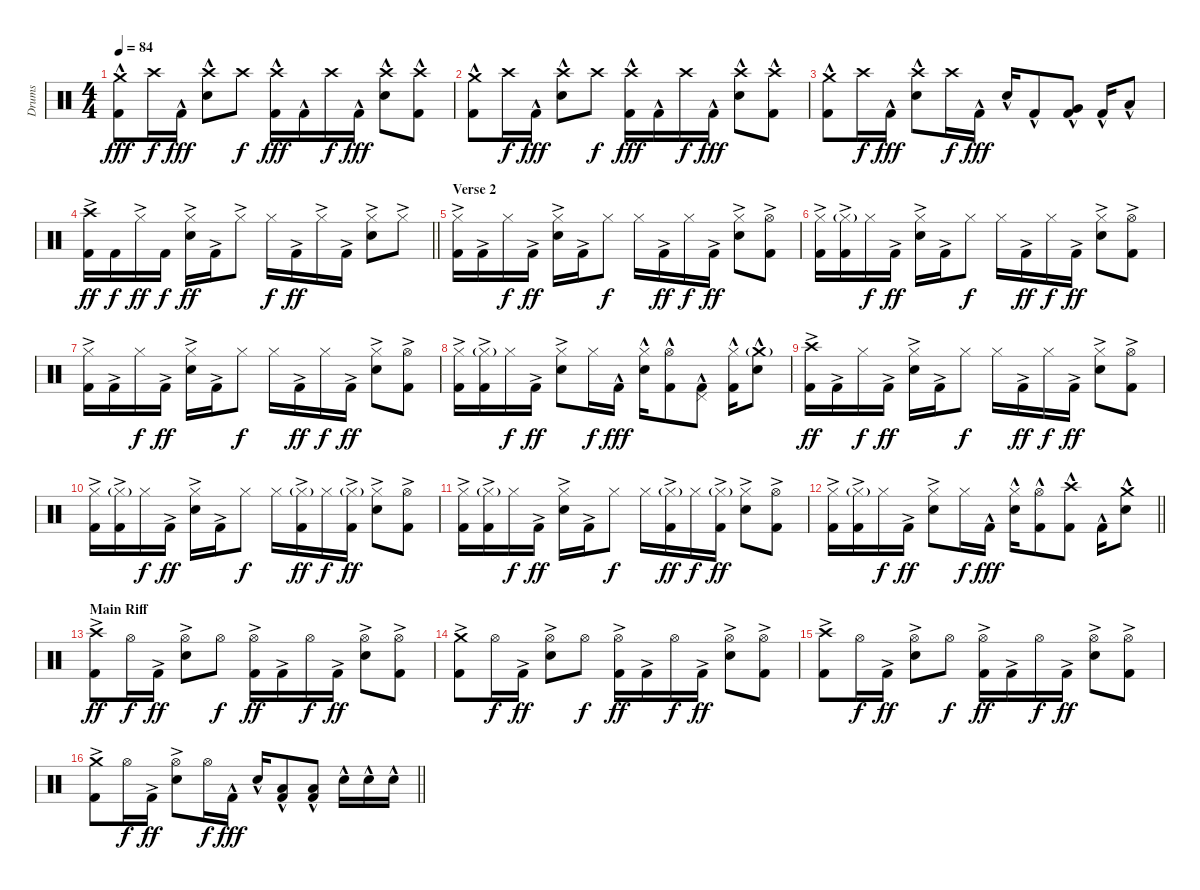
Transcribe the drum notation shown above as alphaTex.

\track ("Drums" "Drums") {instrument percussion}
\staff {score}
\articulation defaults
\ts (4 4)
\tempo 84
\clef neutral
\ks c
("Crash medium (hit)" "Kick (hit) 2"{hac}).8{dy fff} "Crash high (hit)".16{dy f} "Kick (hit) 2"{hac}.16{dy fff} ("Crash high (hit)" "Electric Snare (hit)"{hac}).8 "Crash high (hit)".8{dy f} ("Crash high (hit)" "Kick (hit) 2"{hac}).16{dy fff} "Kick (hit) 2"{hac}.16 "Crash high (hit)".16{dy f} "Kick (hit) 2"{hac}.16{dy fff} ("Crash high (hit)" "Electric Snare (hit)"{hac}).8 ("Crash high (hit)" "Kick (hit) 2"{hac}).8 |
("Crash medium (hit)" "Kick (hit) 2"{hac}).8 "Crash high (hit)".16{dy f} "Kick (hit) 2"{hac}.16{dy fff} ("Crash high (hit)" "Electric Snare (hit)"{hac}).8 "Crash high (hit)".8{dy f} ("Crash high (hit)" "Kick (hit) 2"{hac}).16{dy fff} "Kick (hit) 2"{hac}.16 "Crash high (hit)".16{dy f} "Kick (hit) 2"{hac}.16{dy fff} ("Crash high (hit)" "Electric Snare (hit)"{hac}).8 ("Crash high (hit)" "Kick (hit) 2"{hac}).8 |
("Crash medium (hit)" "Kick (hit) 2"{hac}).8 "Crash high (hit)".16{dy f} "Kick (hit) 2"{hac}.16{dy fff} ("Crash high (hit)" "Electric Snare (hit)"{hac}).8 "Crash high (hit)".16{dy f} "Kick (hit) 2"{hac}.16{dy fff} "Electric Snare (hit)"{hac}.16 "Kick (hit) 2"{hac}.8 ("Very Low Tom (hit)"{hac} "Kick (hit) 2"{hac}).8 "Kick (hit) 2"{hac}.16 "Low Floor Tom (hit)"{hac}.8 |
\barLineRight lightlight
("Crash high (hit)" "Kick (hit) 2"{ac}).16{dy ff} "Kick (hit) 2".16{dy f} "Hi-Hat (closed)"{ac}.16{dy ff} "Kick (hit) 2".16{dy f} ("Hi-Hat (closed)" "Electric Snare (hit)"{ac}).16{dy ff} "Kick (hit) 2"{ac}.16 "Hi-Hat (closed)"{ac}.8 "Hi-Hat (closed)".16{dy f} "Kick (hit) 2"{ac}.16{dy ff} "Hi-Hat (closed)"{ac}.16 "Kick (hit) 2"{ac}.16 ("Hi-Hat (closed)"{ac} "Electric Snare (hit)"{ac}).8 "Hi-Hat (closed)"{ac}.8 |
\section ("" "Verse 2")
("Hi-Hat (closed)" "Kick (hit) 2"{ac}).16 "Kick (hit) 2"{ac}.16 "Hi-Hat (closed)".16{dy f} "Kick (hit) 2"{ac}.16{dy ff} ("Hi-Hat (closed)" "Electric Snare (hit)"{ac}).16 "Kick (hit) 2"{ac}.16 "Hi-Hat (closed)".8{dy f} "Hi-Hat (closed)".16 "Kick (hit) 2"{ac}.16{dy ff} "Hi-Hat (closed)".16{dy f} "Kick (hit) 2"{ac}.16{dy ff} ("Hi-Hat (closed)" "Electric Snare (hit)"{ac}).8 ("Hi-Hat (open)" "Kick (hit) 2"{ac}).8 |
("Hi-Hat (closed)" "Kick (hit) 2"{ac}).16 ("Hi-Hat (closed)"{g} "Kick (hit) 2"{ac}).16 "Hi-Hat (closed)".16{dy f} "Kick (hit) 2"{ac}.16{dy ff} ("Hi-Hat (closed)" "Electric Snare (hit)"{ac}).16 "Kick (hit) 2"{ac}.16 "Hi-Hat (closed)".8{dy f} "Hi-Hat (closed)".16 "Kick (hit) 2"{ac}.16{dy ff} "Hi-Hat (closed)".16{dy f} "Kick (hit) 2"{ac}.16{dy ff} ("Hi-Hat (closed)" "Electric Snare (hit)"{ac}).8 ("Hi-Hat (open)" "Kick (hit) 2"{ac}).8 |
("Hi-Hat (closed)" "Kick (hit) 2"{ac}).16 "Kick (hit) 2"{ac}.16 "Hi-Hat (closed)".16{dy f} "Kick (hit) 2"{ac}.16{dy ff} ("Hi-Hat (closed)" "Electric Snare (hit)"{ac}).16 "Kick (hit) 2"{ac}.16 "Hi-Hat (closed)".8{dy f} "Hi-Hat (closed)".16 "Kick (hit) 2"{ac}.16{dy ff} "Hi-Hat (closed)".16{dy f} "Kick (hit) 2"{ac}.16{dy ff} ("Hi-Hat (closed)" "Electric Snare (hit)"{ac}).8 ("Hi-Hat (open)" "Kick (hit) 2"{ac}).8 |
("Hi-Hat (closed)" "Kick (hit) 2"{ac}).16 ("Hi-Hat (closed)"{g} "Kick (hit) 2"{ac}).16 "Hi-Hat (closed)".16{dy f} "Kick (hit) 2"{ac}.16{dy ff} ("Hi-Hat (closed)" "Electric Snare (hit)"{ac}).8 "Hi-Hat (closed)".16{dy f} "Kick (hit) 2"{hac}.16{dy fff} ("Hi-Hat (closed)" "Electric Snare (hit)"{hac}).16 ("Hi-Hat (open)" "Kick (hit) 2"{hac}).8 ("Pedal Hi-Hat (hit)" "Kick (hit) 2"{hac}).8 ("Hi-Hat (closed)" "Kick (hit) 2"{hac}).16 ("Crash medium (hit)"{g} "Electric Snare (hit)"{hac}).8 |
("Crash high (hit)" "Kick (hit) 2"{ac}).16{dy ff} "Kick (hit) 2"{ac}.16 "Hi-Hat (closed)".16{dy f} "Kick (hit) 2"{ac}.16{dy ff} ("Hi-Hat (closed)" "Electric Snare (hit)"{ac}).16 "Kick (hit) 2"{ac}.16 "Hi-Hat (closed)".8{dy f} "Hi-Hat (closed)".16 "Kick (hit) 2"{ac}.16{dy ff} "Hi-Hat (closed)".16{dy f} "Kick (hit) 2"{ac}.16{dy ff} ("Hi-Hat (closed)" "Electric Snare (hit)"{ac}).8 ("Hi-Hat (open)" "Kick (hit) 2"{ac}).8 |
("Hi-Hat (closed)" "Kick (hit) 2"{ac}).16 ("Hi-Hat (closed)"{g} "Kick (hit) 2"{ac}).16 "Hi-Hat (closed)".16{dy f} "Kick (hit) 2"{ac}.16{dy ff} ("Hi-Hat (closed)" "Electric Snare (hit)"{ac}).16 "Kick (hit) 2"{ac}.16 "Hi-Hat (closed)".8{dy f} "Hi-Hat (closed)".16 ("Hi-Hat (closed)"{g} "Kick (hit) 2"{ac}).16{dy ff} "Hi-Hat (closed)".16{dy f} ("Hi-Hat (closed)"{g} "Kick (hit) 2"{ac}).16{dy ff} ("Hi-Hat (closed)" "Electric Snare (hit)"{ac}).8 ("Hi-Hat (open)" "Kick (hit) 2"{ac}).8 |
("Hi-Hat (closed)" "Kick (hit) 2"{ac}).16 ("Hi-Hat (closed)"{g} "Kick (hit) 2"{ac}).16 "Hi-Hat (closed)".16{dy f} "Kick (hit) 2"{ac}.16{dy ff} ("Hi-Hat (closed)" "Electric Snare (hit)"{ac}).16 "Kick (hit) 2"{ac}.16 "Hi-Hat (closed)".8{dy f} "Hi-Hat (closed)".16 ("Hi-Hat (closed)"{g} "Kick (hit) 2"{ac}).16{dy ff} "Hi-Hat (closed)".16{dy f} ("Hi-Hat (closed)"{g} "Kick (hit) 2"{ac}).16{dy ff} ("Hi-Hat (closed)" "Electric Snare (hit)"{ac}).8 ("Hi-Hat (open)" "Kick (hit) 2"{ac}).8 |
\barLineRight lightlight
("Hi-Hat (closed)" "Kick (hit) 2"{ac}).16 ("Hi-Hat (closed)"{g} "Kick (hit) 2"{ac}).16 "Hi-Hat (closed)".16{dy f} "Kick (hit) 2"{ac}.16{dy ff} ("Hi-Hat (closed)" "Electric Snare (hit)"{ac}).8 "Hi-Hat (closed)".16{dy f} "Kick (hit) 2"{hac}.16{dy fff} ("Hi-Hat (closed)" "Electric Snare (hit)"{hac}).16 ("Hi-Hat (open)" "Kick (hit) 2"{hac}).8 ("Crash high (hit)" "Kick (hit) 2"{hac}).8 "Kick (hit) 2"{hac}.16 ("Crash medium (hit)" "Electric Snare (hit)"{hac}).8 |
\section ("" "Main Riff")
("Crash high (hit)" "Kick (hit) 2"{ac}).8{dy ff} "Hi-Hat (open)".16{dy f} "Kick (hit) 2"{ac}.16{dy ff} ("Hi-Hat (open)" "Electric Snare (hit)"{ac}).8 "Hi-Hat (open)".8{dy f} ("Hi-Hat (open)" "Kick (hit) 2"{ac}).16{dy ff} "Kick (hit) 2"{ac}.16 "Hi-Hat (open)".16{dy f} "Kick (hit) 2"{ac}.16{dy ff} ("Hi-Hat (open)" "Electric Snare (hit)"{ac}).8 ("Hi-Hat (open)" "Kick (hit) 2"{ac}).8 |
("Crash medium (hit)" "Kick (hit) 2"{ac}).8 "Hi-Hat (open)".16{dy f} "Kick (hit) 2"{ac}.16{dy ff} ("Hi-Hat (open)" "Electric Snare (hit)"{ac}).8 "Hi-Hat (open)".8{dy f} ("Hi-Hat (open)" "Kick (hit) 2"{ac}).16{dy ff} "Kick (hit) 2"{ac}.16 "Hi-Hat (open)".16{dy f} "Kick (hit) 2"{ac}.16{dy ff} ("Hi-Hat (open)" "Electric Snare (hit)"{ac}).8 ("Hi-Hat (open)" "Kick (hit) 2"{ac}).8 |
("Crash high (hit)" "Kick (hit) 2"{ac}).8 "Hi-Hat (open)".16{dy f} "Kick (hit) 2"{ac}.16{dy ff} ("Hi-Hat (open)" "Electric Snare (hit)"{ac}).8 "Hi-Hat (open)".8{dy f} ("Hi-Hat (open)" "Kick (hit) 2"{ac}).16{dy ff} "Kick (hit) 2"{ac}.16 "Hi-Hat (open)".16{dy f} "Kick (hit) 2"{ac}.16{dy ff} ("Hi-Hat (open)" "Electric Snare (hit)"{ac}).8 ("Hi-Hat (open)" "Kick (hit) 2"{ac}).8 |
\barLineRight lightlight
("Crash medium (hit)" "Kick (hit) 2"{ac}).8 "Hi-Hat (open)".16{dy f} "Kick (hit) 2"{ac}.16{dy ff} ("Hi-Hat (open)" "Electric Snare (hit)"{ac}).8 "Hi-Hat (open)".16{dy f} "Kick (hit) 2"{hac}.16{dy fff} "Electric Snare (hit)"{hac}.16 ("Low Floor Tom (hit)"{hac} "Kick (hit) 2"{hac}).8 ("Low Floor Tom (hit)"{hac} "Kick (hit) 2"{hac}).8 "Electric Snare (hit)"{hac}.16 "Electric Snare (hit)"{hac}.16 "Electric Snare (hit)"{hac}.16
